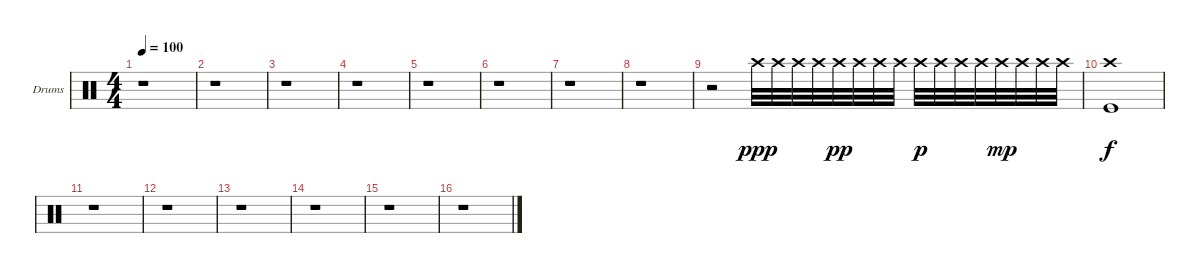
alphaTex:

\bracketExtendMode groupsimilarinstruments
\firstSystemTrackNameOrientation horizontal
\otherSystemsTrackNameOrientation horizontal
\track ("Drumkit (Christoph)" "Drums") {instrument percussion}
\staff {score}
\articulation defaults
\ts (4 4)
\tempo 100
\clef neutral
\ks c
r.1{dy mp} |
r.1 |
r.1 |
r.1 |
r.1 |
r.1 |
r.1 |
r.1 |
r.2 "Crash high (hit)".32{dy ppp} "Crash high (hit)".32 "Crash high (hit)".32 "Crash high (hit)".32 "Crash high (hit)".32{dy pp} "Crash high (hit)".32 "Crash high (hit)".32 "Crash high (hit)".32 "Crash high (hit)".32{dy p} "Crash high (hit)".32 "Crash high (hit)".32 "Crash high (hit)".32 "Crash high (hit)".32{dy mp} "Crash high (hit)".32 "Crash high (hit)".32 "Crash high (hit)".32 |
("Crash high (hit)" "Kick (hit)").1{dy f} |
r.1 |
r.1 |
r.1 |
r.1 |
r.1 |
r.1
